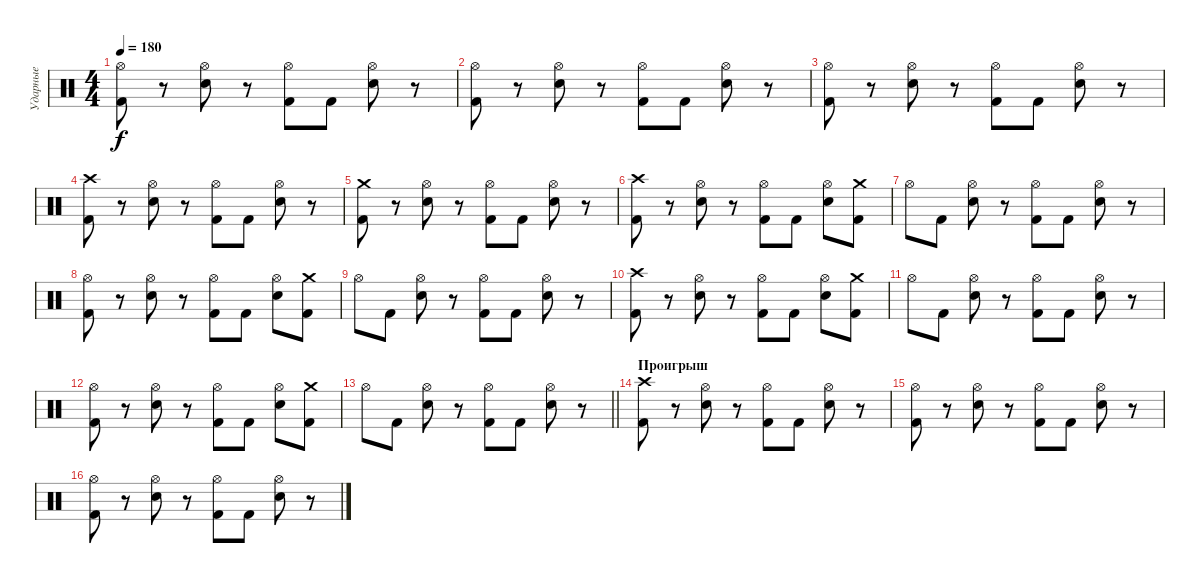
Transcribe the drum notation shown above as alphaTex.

\track ("Ударные" "Ударные") {instrument percussion}
\staff {score}
\articulation defaults
\ts (4 4)
\tempo 180
\clef neutral
\ks c
("Hi-Hat (open)" "Kick (hit) 2").8{dy f} r.8 ("Hi-Hat (open)" "Electric Snare (hit)").8 r.8 ("Hi-Hat (open)" "Kick (hit) 2").8 "Kick (hit) 2".8 ("Hi-Hat (open)" "Electric Snare (hit)").8 r.8 |
("Hi-Hat (open)" "Kick (hit) 2").8 r.8 ("Hi-Hat (open)" "Electric Snare (hit)").8 r.8 ("Hi-Hat (open)" "Kick (hit) 2").8 "Kick (hit) 2".8 ("Hi-Hat (open)" "Electric Snare (hit)").8 r.8 |
("Hi-Hat (open)" "Kick (hit) 2").8 r.8 ("Hi-Hat (open)" "Electric Snare (hit)").8 r.8 ("Hi-Hat (open)" "Kick (hit) 2").8 "Kick (hit) 2".8 ("Hi-Hat (open)" "Electric Snare (hit)").8 r.8 |
("Crash high (hit)" "Kick (hit) 2").8 r.8 ("Hi-Hat (open)" "Electric Snare (hit)").8 r.8 ("Hi-Hat (open)" "Kick (hit) 2").8 "Kick (hit) 2".8 ("Hi-Hat (open)" "Electric Snare (hit)").8 r.8 |
("Crash medium (hit)" "Kick (hit) 2").8 r.8 ("Hi-Hat (open)" "Electric Snare (hit)").8 r.8 ("Hi-Hat (open)" "Kick (hit) 2").8 "Kick (hit) 2".8 ("Hi-Hat (open)" "Electric Snare (hit)").8 r.8 |
("Crash high (hit)" "Kick (hit) 2").8 r.8 ("Hi-Hat (open)" "Electric Snare (hit)").8 r.8 ("Hi-Hat (open)" "Kick (hit) 2").8 "Kick (hit) 2".8 ("Hi-Hat (open)" "Electric Snare (hit)").8 ("Crash medium (hit)" "Kick (hit) 2").8 |
"Hi-Hat (open)".8 "Kick (hit) 2".8 ("Hi-Hat (open)" "Electric Snare (hit)").8 r.8 ("Hi-Hat (open)" "Kick (hit) 2").8 "Kick (hit) 2".8 ("Hi-Hat (open)" "Electric Snare (hit)").8 r.8 |
("Hi-Hat (open)" "Kick (hit) 2").8 r.8 ("Hi-Hat (open)" "Electric Snare (hit)").8 r.8 ("Hi-Hat (open)" "Kick (hit) 2").8 "Kick (hit) 2".8 ("Hi-Hat (open)" "Electric Snare (hit)").8 ("Crash medium (hit)" "Kick (hit) 2").8 |
"Hi-Hat (open)".8 "Kick (hit) 2".8 ("Hi-Hat (open)" "Electric Snare (hit)").8 r.8 ("Hi-Hat (open)" "Kick (hit) 2").8 "Kick (hit) 2".8 ("Hi-Hat (open)" "Electric Snare (hit)").8 r.8 |
("Crash high (hit)" "Kick (hit) 2").8 r.8 ("Hi-Hat (open)" "Electric Snare (hit)").8 r.8 ("Hi-Hat (open)" "Kick (hit) 2").8 "Kick (hit) 2".8 ("Hi-Hat (open)" "Electric Snare (hit)").8 ("Crash medium (hit)" "Kick (hit) 2").8 |
"Hi-Hat (open)".8 "Kick (hit) 2".8 ("Hi-Hat (open)" "Electric Snare (hit)").8 r.8 ("Hi-Hat (open)" "Kick (hit) 2").8 "Kick (hit) 2".8 ("Hi-Hat (open)" "Electric Snare (hit)").8 r.8 |
("Hi-Hat (open)" "Kick (hit) 2").8 r.8 ("Hi-Hat (open)" "Electric Snare (hit)").8 r.8 ("Hi-Hat (open)" "Kick (hit) 2").8 "Kick (hit) 2".8 ("Hi-Hat (open)" "Electric Snare (hit)").8 ("Crash medium (hit)" "Kick (hit) 2").8 |
\barLineRight lightlight "Hi-Hat (open)".8 "Kick (hit) 2".8
("Hi-Hat (open)" "Electric Snare (hit)").8 r.8 ("Hi-Hat (open)" "Kick (hit) 2").8 "Kick (hit) 2".8 ("Hi-Hat (open)" "Electric Snare (hit)").8 r.8 |
\section ("" "Проигрыш")
("Crash high (hit)" "Kick (hit) 2").8 r.8 ("Hi-Hat (open)" "Electric Snare (hit)").8 r.8 ("Hi-Hat (open)" "Kick (hit) 2").8 "Kick (hit) 2".8 ("Hi-Hat (open)" "Electric Snare (hit)").8 r.8 |
("Hi-Hat (open)" "Kick (hit) 2").8 r.8 ("Hi-Hat (open)" "Electric Snare (hit)").8 r.8 ("Hi-Hat (open)" "Kick (hit) 2").8 "Kick (hit) 2".8 ("Hi-Hat (open)" "Electric Snare (hit)").8 r.8 |
("Hi-Hat (open)" "Kick (hit) 2").8 r.8 ("Hi-Hat (open)" "Electric Snare (hit)").8 r.8 ("Hi-Hat (open)" "Kick (hit) 2").8 "Kick (hit) 2".8 ("Hi-Hat (open)" "Electric Snare (hit)").8 r.8
